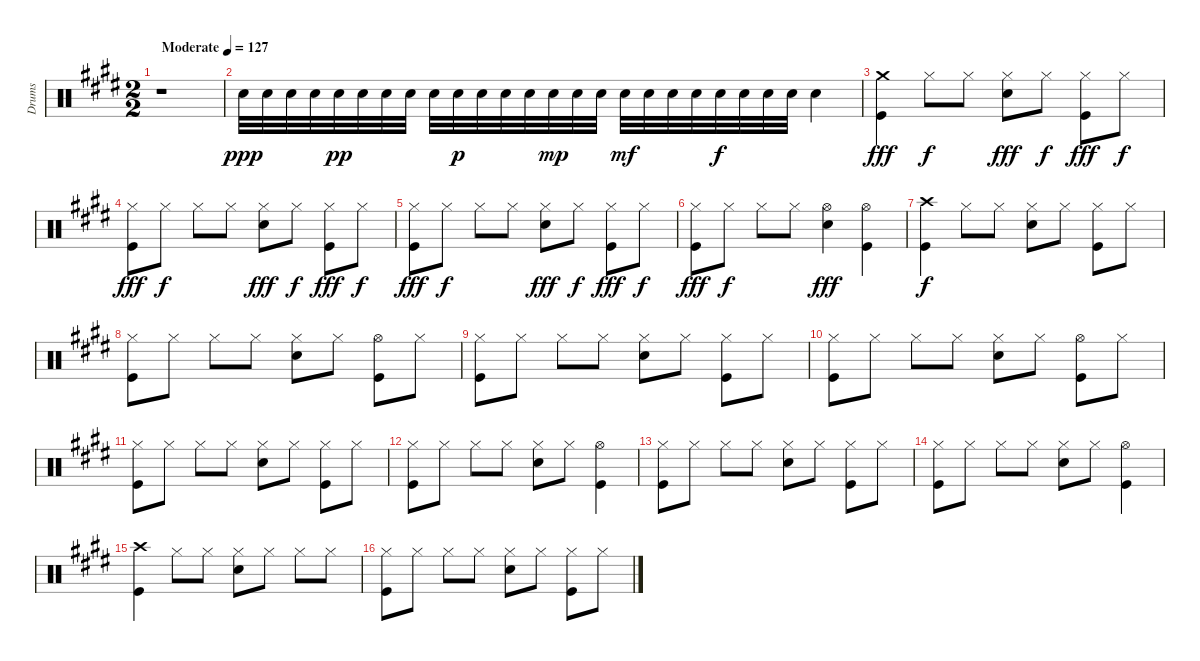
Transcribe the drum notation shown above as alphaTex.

\track ("Drums" "Drums") {solo instrument percussion}
\staff {score}
\articulation defaults
\ts (2 2)
\tempo (127 "Moderate")
\clef neutral
\ks e
r.1{dy ppp} |
"Snare (hit) 2".32 "Snare (hit) 2".32 "Snare (hit) 2".32 "Snare (hit) 2".32 "Snare (hit) 2".32{dy pp} "Snare (hit) 2".32 "Snare (hit) 2".32 "Snare (hit) 2".32 "Snare (hit) 2".32 "Snare (hit) 2".32{dy p} "Snare (hit) 2".32 "Snare (hit) 2".32 "Snare (hit) 2".32 "Snare (hit) 2".32{dy mp} "Snare (hit) 2".32 "Snare (hit) 2".32 "Snare (hit) 2".32{dy mf} "Snare (hit) 2".32 "Snare (hit) 2".32 "Snare (hit) 2".32 "Snare (hit) 2".32{dy f} "Snare (hit) 2".32 "Snare (hit) 2".32 "Snare (hit) 2".32 "Snare (hit) 2".4 |
("Crash medium (hit)" "Kick (hit)").4{dy fff} "Hi-Hat (closed)".8{dy f} "Hi-Hat (closed)".8 ("Hi-Hat (closed)" "Snare (hit) 2").8{dy fff} "Hi-Hat (closed)".8{dy f} ("Hi-Hat (closed)" "Kick (hit)").8{dy fff} "Hi-Hat (closed)".8{dy f} |
("Hi-Hat (closed)" "Kick (hit)").8{dy fff} "Hi-Hat (closed)".8{dy f} "Hi-Hat (closed)".8 "Hi-Hat (closed)".8 ("Hi-Hat (closed)" "Snare (hit) 2").8{dy fff} "Hi-Hat (closed)".8{dy f} ("Hi-Hat (closed)" "Kick (hit)").8{dy fff} "Hi-Hat (closed)".8{dy f} |
("Hi-Hat (closed)" "Kick (hit)").8{dy fff} "Hi-Hat (closed)".8{dy f} "Hi-Hat (closed)".8 "Hi-Hat (closed)".8 ("Hi-Hat (closed)" "Snare (hit) 2").8{dy fff} "Hi-Hat (closed)".8{dy f} ("Hi-Hat (closed)" "Kick (hit)").8{dy fff} "Hi-Hat (closed)".8{dy f} |
("Hi-Hat (closed)" "Kick (hit)").8{dy fff} "Hi-Hat (closed)".8{dy f} "Hi-Hat (closed)".8 "Hi-Hat (closed)".8 ("Hi-Hat (open)" "Snare (hit) 2").4{dy fff} ("Hi-Hat (open)" "Kick (hit)").4 |
("Crash high (hit)" "Kick (hit)").4{dy f} "Hi-Hat (closed)".8 "Hi-Hat (closed)".8 ("Hi-Hat (closed)" "Snare (hit) 2").8 "Hi-Hat (closed)".8 ("Hi-Hat (closed)" "Kick (hit)").8 "Hi-Hat (closed)".8 |
("Hi-Hat (closed)" "Kick (hit)").8 "Hi-Hat (closed)".8 "Hi-Hat (closed)".8 "Hi-Hat (closed)".8 ("Hi-Hat (closed)" "Snare (hit) 2").8 "Hi-Hat (closed)".8 ("Hi-Hat (open)" "Kick (hit)").8 "Hi-Hat (closed)".8 |
("Hi-Hat (closed)" "Kick (hit)").8 "Hi-Hat (closed)".8 "Hi-Hat (closed)".8 "Hi-Hat (closed)".8 ("Hi-Hat (closed)" "Snare (hit) 2").8 "Hi-Hat (closed)".8 ("Hi-Hat (closed)" "Kick (hit)").8 "Hi-Hat (closed)".8 |
("Hi-Hat (closed)" "Kick (hit)").8 "Hi-Hat (closed)".8 "Hi-Hat (closed)".8 "Hi-Hat (closed)".8 ("Hi-Hat (closed)" "Snare (hit) 2").8 "Hi-Hat (closed)".8 ("Hi-Hat (open)" "Kick (hit)").8 "Hi-Hat (closed)".8 |
("Hi-Hat (closed)" "Kick (hit)").8 "Hi-Hat (closed)".8 "Hi-Hat (closed)".8 "Hi-Hat (closed)".8 ("Hi-Hat (closed)" "Snare (hit) 2").8 "Hi-Hat (closed)".8 ("Hi-Hat (closed)" "Kick (hit)").8 "Hi-Hat (closed)".8 |
("Hi-Hat (closed)" "Kick (hit)").8 "Hi-Hat (closed)".8 "Hi-Hat (closed)".8 "Hi-Hat (closed)".8 ("Hi-Hat (closed)" "Snare (hit) 2").8 "Hi-Hat (closed)".8 ("Hi-Hat (open)" "Kick (hit)").4 |
("Hi-Hat (closed)" "Kick (hit)").8 "Hi-Hat (closed)".8 "Hi-Hat (closed)".8 "Hi-Hat (closed)".8 ("Hi-Hat (closed)" "Snare (hit) 2").8 "Hi-Hat (closed)".8 ("Hi-Hat (closed)" "Kick (hit)").8 "Hi-Hat (closed)".8 |
("Hi-Hat (closed)" "Kick (hit)").8 "Hi-Hat (closed)".8 "Hi-Hat (closed)".8 "Hi-Hat (closed)".8 ("Hi-Hat (closed)" "Snare (hit) 2").8 "Hi-Hat (closed)".8 ("Hi-Hat (open)" "Kick (hit)").4 |
("Crash high (hit)" "Kick (hit)").4 "Hi-Hat (closed)".8 "Hi-Hat (closed)".8 ("Hi-Hat (closed)" "Snare (hit) 2").8 "Hi-Hat (closed)".8 "Hi-Hat (closed)".8 "Hi-Hat (closed)".8 |
("Hi-Hat (closed)" "Kick (hit)").8 "Hi-Hat (closed)".8 "Hi-Hat (closed)".8 "Hi-Hat (closed)".8 ("Hi-Hat (closed)" "Snare (hit) 2").8 "Hi-Hat (closed)".8 ("Hi-Hat (closed)" "Kick (hit)").8 "Hi-Hat (closed)".8
